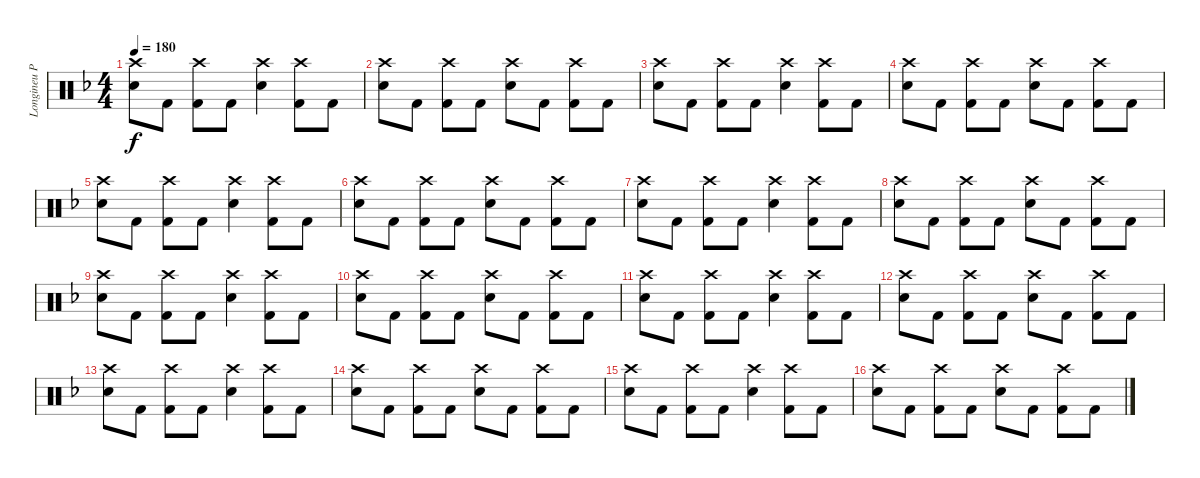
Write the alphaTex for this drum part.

\track ("Longineu Parsons III (Drums 1)" "Longineu P") {instrument percussion}
\staff {score}
\articulation defaults
\ts (4 4)
\tempo 180
\clef neutral
\ks f
("Crash high (hit)" "Snare (hit) 2").8{dy f} "Kick (hit) 2".8 ("Crash high (hit)" "Kick (hit) 2").8 "Kick (hit) 2".8 ("Crash high (hit)" "Snare (hit) 2").4 ("Crash high (hit)" "Kick (hit) 2").8 "Kick (hit) 2".8 |
("Crash high (hit)" "Snare (hit) 2").8 "Kick (hit) 2".8 ("Crash high (hit)" "Kick (hit) 2").8 "Kick (hit) 2".8 ("Crash high (hit)" "Snare (hit) 2").8 "Kick (hit) 2".8 ("Crash high (hit)" "Kick (hit) 2").8 "Kick (hit) 2".8 |
("Crash high (hit)" "Snare (hit) 2").8 "Kick (hit) 2".8 ("Crash high (hit)" "Kick (hit) 2").8 "Kick (hit) 2".8 ("Crash high (hit)" "Snare (hit) 2").4 ("Crash high (hit)" "Kick (hit) 2").8 "Kick (hit) 2".8 |
("Crash high (hit)" "Snare (hit) 2").8 "Kick (hit) 2".8 ("Crash high (hit)" "Kick (hit) 2").8 "Kick (hit) 2".8 ("Crash high (hit)" "Snare (hit) 2").8 "Kick (hit) 2".8 ("Crash high (hit)" "Kick (hit) 2").8 "Kick (hit) 2".8 |
("Crash high (hit)" "Snare (hit) 2").8 "Kick (hit) 2".8 ("Crash high (hit)" "Kick (hit) 2").8 "Kick (hit) 2".8 ("Crash high (hit)" "Snare (hit) 2").4 ("Crash high (hit)" "Kick (hit) 2").8 "Kick (hit) 2".8 |
("Crash high (hit)" "Snare (hit) 2").8 "Kick (hit) 2".8 ("Crash high (hit)" "Kick (hit) 2").8 "Kick (hit) 2".8 ("Crash high (hit)" "Snare (hit) 2").8 "Kick (hit) 2".8 ("Crash high (hit)" "Kick (hit) 2").8 "Kick (hit) 2".8 |
("Crash high (hit)" "Snare (hit) 2").8 "Kick (hit) 2".8 ("Crash high (hit)" "Kick (hit) 2").8 "Kick (hit) 2".8 ("Crash high (hit)" "Snare (hit) 2").4 ("Crash high (hit)" "Kick (hit) 2").8 "Kick (hit) 2".8 |
("Crash high (hit)" "Snare (hit) 2").8 "Kick (hit) 2".8 ("Crash high (hit)" "Kick (hit) 2").8 "Kick (hit) 2".8 ("Crash high (hit)" "Snare (hit) 2").8 "Kick (hit) 2".8 ("Crash high (hit)" "Kick (hit) 2").8 "Kick (hit) 2".8 |
("Crash high (hit)" "Snare (hit) 2").8 "Kick (hit) 2".8 ("Crash high (hit)" "Kick (hit) 2").8 "Kick (hit) 2".8 ("Crash high (hit)" "Snare (hit) 2").4 ("Crash high (hit)" "Kick (hit) 2").8 "Kick (hit) 2".8 |
("Crash high (hit)" "Snare (hit) 2").8 "Kick (hit) 2".8 ("Crash high (hit)" "Kick (hit) 2").8 "Kick (hit) 2".8 ("Crash high (hit)" "Snare (hit) 2").8 "Kick (hit) 2".8 ("Crash high (hit)" "Kick (hit) 2").8 "Kick (hit) 2".8 |
("Crash high (hit)" "Snare (hit) 2").8 "Kick (hit) 2".8 ("Crash high (hit)" "Kick (hit) 2").8 "Kick (hit) 2".8 ("Crash high (hit)" "Snare (hit) 2").4 ("Crash high (hit)" "Kick (hit) 2").8 "Kick (hit) 2".8 |
("Crash high (hit)" "Snare (hit) 2").8 "Kick (hit) 2".8 ("Crash high (hit)" "Kick (hit) 2").8 "Kick (hit) 2".8 ("Crash high (hit)" "Snare (hit) 2").8 "Kick (hit) 2".8 ("Crash high (hit)" "Kick (hit) 2").8 "Kick (hit) 2".8 |
("Crash high (hit)" "Snare (hit) 2").8 "Kick (hit) 2".8 ("Crash high (hit)" "Kick (hit) 2").8 "Kick (hit) 2".8 ("Crash high (hit)" "Snare (hit) 2").4 ("Crash high (hit)" "Kick (hit) 2").8 "Kick (hit) 2".8 |
("Crash high (hit)" "Snare (hit) 2").8 "Kick (hit) 2".8 ("Crash high (hit)" "Kick (hit) 2").8 "Kick (hit) 2".8 ("Crash high (hit)" "Snare (hit) 2").8 "Kick (hit) 2".8 ("Crash high (hit)" "Kick (hit) 2").8 "Kick (hit) 2".8 |
("Crash high (hit)" "Snare (hit) 2").8 "Kick (hit) 2".8 ("Crash high (hit)" "Kick (hit) 2").8 "Kick (hit) 2".8 ("Crash high (hit)" "Snare (hit) 2").4 ("Crash high (hit)" "Kick (hit) 2").8 "Kick (hit) 2".8 |
("Crash high (hit)" "Snare (hit) 2").8 "Kick (hit) 2".8 ("Crash high (hit)" "Kick (hit) 2").8 "Kick (hit) 2".8 ("Crash high (hit)" "Snare (hit) 2").8 "Kick (hit) 2".8 ("Crash high (hit)" "Kick (hit) 2").8 "Kick (hit) 2".8
